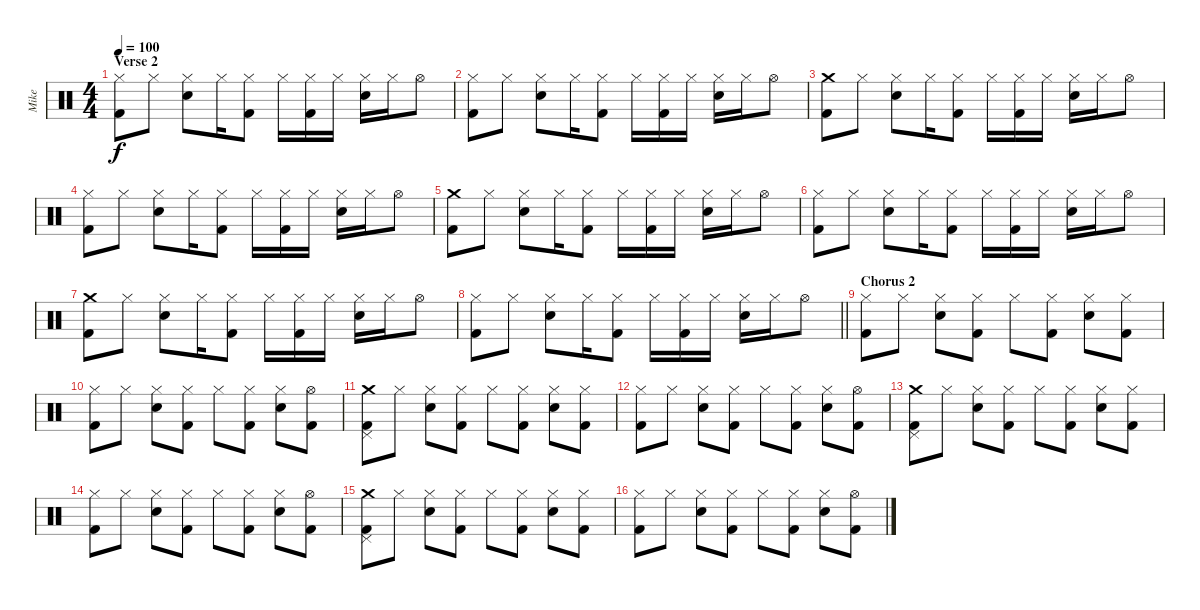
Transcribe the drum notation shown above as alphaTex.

\track ("Mike" "Mike") {instrument percussion}
\staff {score}
\articulation defaults
\ts (4 4)
\section ("" "Verse 2")
\tempo 100
\clef neutral
\ks c
("Hi-Hat (closed)" "Kick (hit) 2").8{dy f} "Hi-Hat (closed)".8 ("Hi-Hat (closed)" "Electric Snare (hit)").8 "Hi-Hat (closed)".16 ("Hi-Hat (closed)" "Kick (hit) 2").8 "Hi-Hat (closed)".16 ("Hi-Hat (closed)" "Kick (hit) 2").16 "Hi-Hat (closed)".16 ("Hi-Hat (closed)" "Electric Snare (hit)").16 "Hi-Hat (closed)".16 "Hi-Hat (open)".8 |
("Hi-Hat (closed)" "Kick (hit) 2").8 "Hi-Hat (closed)".8 ("Hi-Hat (closed)" "Electric Snare (hit)").8 "Hi-Hat (closed)".16 ("Hi-Hat (closed)" "Kick (hit) 2").8 "Hi-Hat (closed)".16 ("Hi-Hat (closed)" "Kick (hit) 2").16 "Hi-Hat (closed)".16 ("Hi-Hat (closed)" "Electric Snare (hit)").16 "Hi-Hat (closed)".16 "Hi-Hat (open)".8 |
("Crash medium (hit)" "Kick (hit) 2").8 "Hi-Hat (closed)".8 ("Hi-Hat (closed)" "Electric Snare (hit)").8 "Hi-Hat (closed)".16 ("Hi-Hat (closed)" "Kick (hit) 2").8 "Hi-Hat (closed)".16 ("Hi-Hat (closed)" "Kick (hit) 2").16 "Hi-Hat (closed)".16 ("Hi-Hat (closed)" "Electric Snare (hit)").16 "Hi-Hat (closed)".16 "Hi-Hat (open)".8 |
("Hi-Hat (closed)" "Kick (hit) 2").8 "Hi-Hat (closed)".8 ("Hi-Hat (closed)" "Electric Snare (hit)").8 "Hi-Hat (closed)".16 ("Hi-Hat (closed)" "Kick (hit) 2").8 "Hi-Hat (closed)".16 ("Hi-Hat (closed)" "Kick (hit) 2").16 "Hi-Hat (closed)".16 ("Hi-Hat (closed)" "Electric Snare (hit)").16 "Hi-Hat (closed)".16 "Hi-Hat (open)".8 |
("Crash medium (hit)" "Kick (hit) 2").8 "Hi-Hat (closed)".8 ("Hi-Hat (closed)" "Electric Snare (hit)").8 "Hi-Hat (closed)".16 ("Hi-Hat (closed)" "Kick (hit) 2").8 "Hi-Hat (closed)".16 ("Hi-Hat (closed)" "Kick (hit) 2").16 "Hi-Hat (closed)".16 ("Hi-Hat (closed)" "Electric Snare (hit)").16 "Hi-Hat (closed)".16 "Hi-Hat (open)".8 |
("Hi-Hat (closed)" "Kick (hit) 2").8 "Hi-Hat (closed)".8 ("Hi-Hat (closed)" "Electric Snare (hit)").8 "Hi-Hat (closed)".16 ("Hi-Hat (closed)" "Kick (hit) 2").8 "Hi-Hat (closed)".16 ("Hi-Hat (closed)" "Kick (hit) 2").16 "Hi-Hat (closed)".16 ("Hi-Hat (closed)" "Electric Snare (hit)").16 "Hi-Hat (closed)".16 "Hi-Hat (open)".8 |
("Crash medium (hit)" "Kick (hit) 2").8 "Hi-Hat (closed)".8 ("Hi-Hat (closed)" "Electric Snare (hit)").8 "Hi-Hat (closed)".16 ("Hi-Hat (closed)" "Kick (hit) 2").8 "Hi-Hat (closed)".16 ("Hi-Hat (closed)" "Kick (hit) 2").16 "Hi-Hat (closed)".16 ("Hi-Hat (closed)" "Electric Snare (hit)").16 "Hi-Hat (closed)".16 "Hi-Hat (open)".8 |
\barLineRight lightlight
("Hi-Hat (closed)" "Kick (hit) 2").8 "Hi-Hat (closed)".8 ("Hi-Hat (closed)" "Electric Snare (hit)").8 "Hi-Hat (closed)".16 ("Hi-Hat (closed)" "Kick (hit) 2").8 "Hi-Hat (closed)".16 ("Hi-Hat (closed)" "Kick (hit) 2").16 "Hi-Hat (closed)".16 ("Hi-Hat (closed)" "Electric Snare (hit)").16 "Hi-Hat (closed)".16 "Hi-Hat (open)".8 |
\section ("" "Chorus 2")
("Hi-Hat (closed)" "Kick (hit) 2").8 "Hi-Hat (closed)".8 ("Hi-Hat (closed)" "Electric Snare (hit)").8 ("Hi-Hat (closed)" "Kick (hit) 2").8 "Hi-Hat (closed)".8 ("Hi-Hat (closed)" "Kick (hit) 2").8 ("Hi-Hat (closed)" "Electric Snare (hit)").8 ("Hi-Hat (closed)" "Kick (hit) 2").8 |
("Hi-Hat (closed)" "Kick (hit) 2").8 "Hi-Hat (closed)".8 ("Hi-Hat (closed)" "Electric Snare (hit)").8 ("Hi-Hat (closed)" "Kick (hit) 2").8 "Hi-Hat (closed)".8 ("Hi-Hat (closed)" "Kick (hit) 2").8 ("Hi-Hat (closed)" "Electric Snare (hit)").8 ("Hi-Hat (open)" "Kick (hit) 2").8 |
("Crash medium (hit)" "Pedal Hi-Hat (hit)" "Kick (hit) 2").8 "Hi-Hat (closed)".8 ("Hi-Hat (closed)" "Electric Snare (hit)").8 ("Hi-Hat (closed)" "Kick (hit) 2").8 "Hi-Hat (closed)".8 ("Hi-Hat (closed)" "Kick (hit) 2").8 ("Hi-Hat (closed)" "Electric Snare (hit)").8 ("Hi-Hat (closed)" "Kick (hit) 2").8 |
("Hi-Hat (closed)" "Kick (hit) 2").8 "Hi-Hat (closed)".8 ("Hi-Hat (closed)" "Electric Snare (hit)").8 ("Hi-Hat (closed)" "Kick (hit) 2").8 "Hi-Hat (closed)".8 ("Hi-Hat (closed)" "Kick (hit) 2").8 ("Hi-Hat (closed)" "Electric Snare (hit)").8 ("Hi-Hat (open)" "Kick (hit) 2").8 |
("Crash medium (hit)" "Pedal Hi-Hat (hit)" "Kick (hit) 2").8 "Hi-Hat (closed)".8 ("Hi-Hat (closed)" "Electric Snare (hit)").8 ("Hi-Hat (closed)" "Kick (hit) 2").8 "Hi-Hat (closed)".8 ("Hi-Hat (closed)" "Kick (hit) 2").8 ("Hi-Hat (closed)" "Electric Snare (hit)").8 ("Hi-Hat (closed)" "Kick (hit) 2").8 |
("Hi-Hat (closed)" "Kick (hit) 2").8 "Hi-Hat (closed)".8 ("Hi-Hat (closed)" "Electric Snare (hit)").8 ("Hi-Hat (closed)" "Kick (hit) 2").8 "Hi-Hat (closed)".8 ("Hi-Hat (closed)" "Kick (hit) 2").8 ("Hi-Hat (closed)" "Electric Snare (hit)").8 ("Hi-Hat (open)" "Kick (hit) 2").8 |
("Crash medium (hit)" "Pedal Hi-Hat (hit)" "Kick (hit) 2").8 "Hi-Hat (closed)".8 ("Hi-Hat (closed)" "Electric Snare (hit)").8 ("Hi-Hat (closed)" "Kick (hit) 2").8 "Hi-Hat (closed)".8 ("Hi-Hat (closed)" "Kick (hit) 2").8 ("Hi-Hat (closed)" "Electric Snare (hit)").8 ("Hi-Hat (closed)" "Kick (hit) 2").8 |
("Hi-Hat (closed)" "Kick (hit) 2").8 "Hi-Hat (closed)".8 ("Hi-Hat (closed)" "Electric Snare (hit)").8 ("Hi-Hat (closed)" "Kick (hit) 2").8 "Hi-Hat (closed)".8 ("Hi-Hat (closed)" "Kick (hit) 2").8 ("Hi-Hat (closed)" "Electric Snare (hit)").8 ("Hi-Hat (open)" "Kick (hit) 2").8
